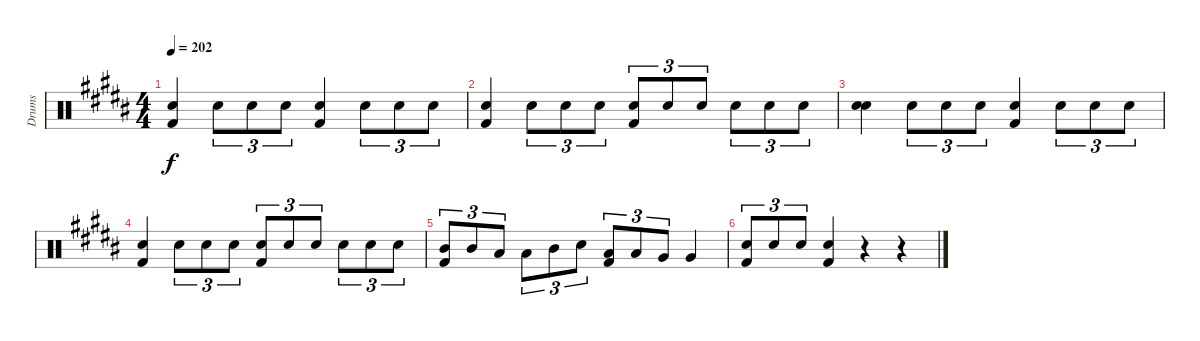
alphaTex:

\track ("Drums" "Drums") {instrument percussion}
\staff {score}
\articulation defaults
\ts (4 4)
\tempo 202
\clef neutral
\ks g#minor
("Electric Snare (hit)" "Kick (hit) 2").4{dy f} "Electric Snare (hit)".8{tu (3 2)} "Electric Snare (hit)".8{tu (3 2)} "Electric Snare (hit)".8{tu (3 2)} ("Electric Snare (hit)" "Kick (hit) 2").4 "Electric Snare (hit)".8{tu (3 2)} "Electric Snare (hit)".8{tu (3 2)} "Electric Snare (hit)".8{tu (3 2)} |
("Electric Snare (hit)" "Kick (hit) 2").4 "Electric Snare (hit)".8{tu (3 2)} "Electric Snare (hit)".8{tu (3 2)} "Electric Snare (hit)".8{tu (3 2)} ("Electric Snare (hit)" "Kick (hit) 2").8{tu (3 2)} "Electric Snare (hit)".8{tu (3 2)} "Electric Snare (hit)".8{tu (3 2)} "Electric Snare (hit)".8{tu (3 2)} "Electric Snare (hit)".8{tu (3 2)} "Electric Snare (hit)".8{tu (3 2)} |
("Electric Snare (hit)" "Snare (hit)").4 "Electric Snare (hit)".8{tu (3 2)} "Electric Snare (hit)".8{tu (3 2)} "Electric Snare (hit)".8{tu (3 2)} ("Electric Snare (hit)" "Kick (hit) 2").4 "Electric Snare (hit)".8{tu (3 2)} "Electric Snare (hit)".8{tu (3 2)} "Electric Snare (hit)".8{tu (3 2)} |
("Electric Snare (hit)" "Kick (hit) 2").4 "Electric Snare (hit)".8{tu (3 2)} "Electric Snare (hit)".8{tu (3 2)} "Electric Snare (hit)".8{tu (3 2)} ("Electric Snare (hit)" "Kick (hit) 2").8{tu (3 2)} "Electric Snare (hit)".8{tu (3 2)} "Electric Snare (hit)".8{tu (3 2)} "Electric Snare (hit)".8{tu (3 2)} "Electric Snare (hit)".8{tu (3 2)} "Electric Snare (hit)".8{tu (3 2)} |
("Mid Tom (hit)" "Kick (hit) 2").8{tu (3 2)} "Mid Tom (hit)".8{tu (3 2)} "Low Tom (hit)".8{tu (3 2)} "Low Tom (hit)".8{tu (3 2)} "Mid Tom (hit)".8{tu (3 2)} "Electric Snare (hit)".8{tu (3 2)} ("Low Tom (hit)" "Kick (hit) 2").8{tu (3 2)} "Low Tom (hit)".8{tu (3 2)} "Very Low Tom (hit)".8{tu (3 2)} "Very Low Tom (hit)".4 |
("Electric Snare (hit)" "Kick (hit) 2").8{tu (3 2)} "Electric Snare (hit)".8{tu (3 2)} "Electric Snare (hit)".8{tu (3 2)} ("Electric Snare (hit)" "Kick (hit) 2").4 r.4 r.4
